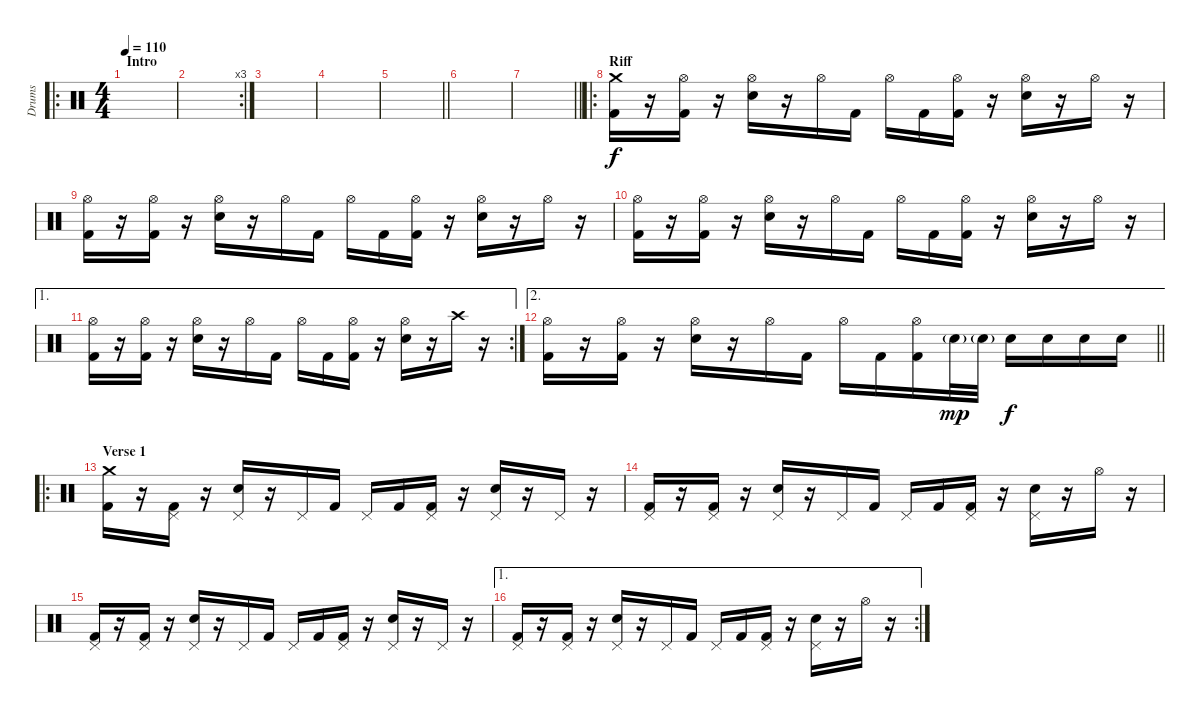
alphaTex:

\track ("Drums" "Drums") {instrument percussion}
\staff {score}
\articulation defaults
\ro
\ts (4 4)
\section ("" "Intro")
\tempo 110
\clef neutral
\ks c
|
\rc 3
|
|
|
\barLineRight lightlight
|
|
\barLineRight lightlight
|
\ro
\section ("" "Riff")
("Crash medium (hit)" "Kick (hit) 2").16 r.16 ("Hi-Hat (open)" "Kick (hit) 2").16 r.16 ("Hi-Hat (open)" "Electric Snare (hit)").16 r.16 "Hi-Hat (open)".16 "Kick (hit) 2".16 "Hi-Hat (open)".16 "Kick (hit) 2".16 ("Hi-Hat (open)" "Kick (hit) 2").16 r.16 ("Hi-Hat (open)" "Electric Snare (hit)").16 r.16 "Hi-Hat (open)".16 r.16 |
("Hi-Hat (open)" "Kick (hit) 2").16 r.16 ("Hi-Hat (open)" "Kick (hit) 2").16 r.16 ("Hi-Hat (open)" "Electric Snare (hit)").16 r.16 "Hi-Hat (open)".16 "Kick (hit) 2".16 "Hi-Hat (open)".16 "Kick (hit) 2".16 ("Hi-Hat (open)" "Kick (hit) 2").16 r.16 ("Hi-Hat (open)" "Electric Snare (hit)").16 r.16 "Hi-Hat (open)".16 r.16 |
("Hi-Hat (open)" "Kick (hit) 2").16 r.16 ("Hi-Hat (open)" "Kick (hit) 2").16 r.16 ("Hi-Hat (open)" "Electric Snare (hit)").16 r.16 "Hi-Hat (open)".16 "Kick (hit) 2".16 "Hi-Hat (open)".16 "Kick (hit) 2".16 ("Hi-Hat (open)" "Kick (hit) 2").16 r.16 ("Hi-Hat (open)" "Electric Snare (hit)").16 r.16 "Hi-Hat (open)".16 r.16 |
\ae 1
\rc 2
("Hi-Hat (open)" "Kick (hit) 2").16 r.16 ("Hi-Hat (open)" "Kick (hit) 2").16 r.16 ("Hi-Hat (open)" "Electric Snare (hit)").16 r.16 "Hi-Hat (open)".16 "Kick (hit) 2".16 "Hi-Hat (open)".16 "Kick (hit) 2".16 ("Hi-Hat (open)" "Kick (hit) 2").16 r.16 ("Hi-Hat (open)" "Electric Snare (hit)").16 r.16 "Crash high (hit)".16 r.16 |
\ae 2
\barLineRight lightlight
("Hi-Hat (open)" "Kick (hit) 2").16 r.16 ("Hi-Hat (open)" "Kick (hit) 2").16 r.16 ("Hi-Hat (open)" "Electric Snare (hit)").16 r.16 "Hi-Hat (open)".16 "Kick (hit) 2".16 "Hi-Hat (open)".16 "Kick (hit) 2".16 ("Hi-Hat (open)" "Kick (hit) 2").16 "Electric Snare (hit)"{g}.32{dy mp} "Electric Snare (hit)"{g}.32 "Electric Snare (hit)".16{dy f} "Electric Snare (hit)".16 "Electric Snare (hit)".16 "Electric Snare (hit)".16 |
\ro
\section ("" "Verse 1")
("Crash medium (hit)" "Kick (hit) 2").16 r.16 ("Pedal Hi-Hat (hit)" "Kick (hit) 2").16 r.16 ("Pedal Hi-Hat (hit)" "Electric Snare (hit)").16 r.16 "Pedal Hi-Hat (hit)".16 "Kick (hit) 2".16 "Pedal Hi-Hat (hit)".16 "Kick (hit) 2".16 ("Pedal Hi-Hat (hit)" "Kick (hit) 2").16 r.16 ("Pedal Hi-Hat (hit)" "Electric Snare (hit)").16 r.16 "Pedal Hi-Hat (hit)".16 r.16 |
("Pedal Hi-Hat (hit)" "Kick (hit) 2").16 r.16 ("Pedal Hi-Hat (hit)" "Kick (hit) 2").16 r.16 ("Pedal Hi-Hat (hit)" "Electric Snare (hit)").16 r.16 "Pedal Hi-Hat (hit)".16 "Kick (hit) 2".16 "Pedal Hi-Hat (hit)".16 "Kick (hit) 2".16 ("Pedal Hi-Hat (hit)" "Kick (hit) 2").16 r.16 ("Pedal Hi-Hat (hit)" "Electric Snare (hit)").16 r.16 "Hi-Hat (open)".16 r.16 |
("Pedal Hi-Hat (hit)" "Kick (hit) 2").16 r.16 ("Pedal Hi-Hat (hit)" "Kick (hit) 2").16 r.16 ("Pedal Hi-Hat (hit)" "Electric Snare (hit)").16 r.16 "Pedal Hi-Hat (hit)".16 "Kick (hit) 2".16 "Pedal Hi-Hat (hit)".16 "Kick (hit) 2".16 ("Pedal Hi-Hat (hit)" "Kick (hit) 2").16 r.16 ("Pedal Hi-Hat (hit)" "Electric Snare (hit)").16 r.16 "Pedal Hi-Hat (hit)".16 r.16 |
\ae 1
\rc 2
("Pedal Hi-Hat (hit)" "Kick (hit) 2").16 r.16 ("Pedal Hi-Hat (hit)" "Kick (hit) 2").16 r.16 ("Pedal Hi-Hat (hit)" "Electric Snare (hit)").16 r.16 "Pedal Hi-Hat (hit)".16 "Kick (hit) 2".16 "Pedal Hi-Hat (hit)".16 "Kick (hit) 2".16 ("Pedal Hi-Hat (hit)" "Kick (hit) 2").16 r.16 ("Pedal Hi-Hat (hit)" "Electric Snare (hit)").16 r.16 "Hi-Hat (open)".16 r.16
